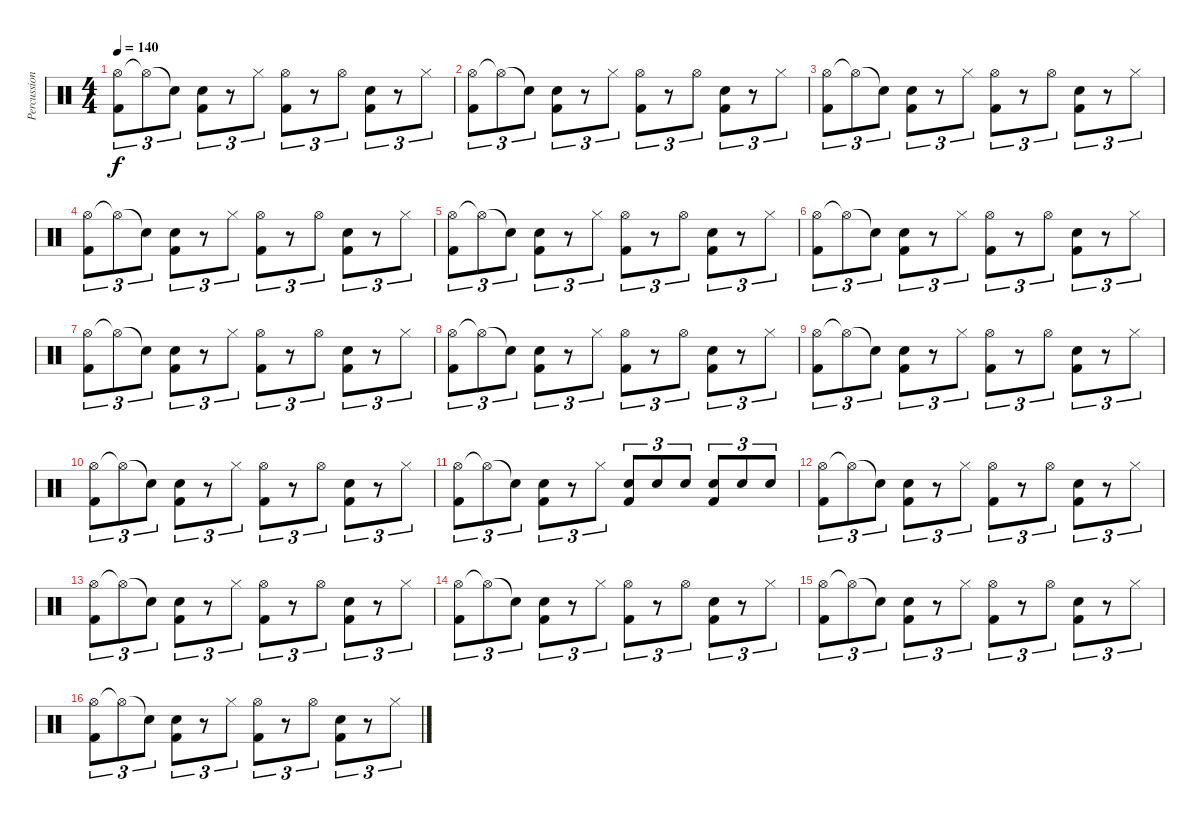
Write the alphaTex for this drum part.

\track ("Percussion" "Percussion") {instrument percussion}
\staff {score}
\articulation defaults
\ts (4 4)
\tempo 140
\clef neutral
\ks c
("Hi-Hat (open)" "Kick (hit) 2").8{tu (3 2) dy f} "Hi-Hat (open)"{t}.8{tu (3 2)} "Snare (hit)"{t}.8{tu (3 2)} ("Snare (hit) 2" "Kick (hit) 2").8{tu (3 2)} r.8{tu (3 2)} "Hi-Hat (closed)".8{tu (3 2)} ("Hi-Hat (open)" "Kick (hit) 2").8{tu (3 2)} r.8{tu (3 2)} "Hi-Hat (open)".8{tu (3 2)} ("Snare (hit) 2" "Kick (hit) 2").8{tu (3 2)} r.8{tu (3 2)} "Hi-Hat (closed)".8{tu (3 2)} |
("Hi-Hat (open)" "Kick (hit) 2").8{tu (3 2)} "Hi-Hat (open)"{t}.8{tu (3 2)} "Snare (hit)"{t}.8{tu (3 2)} ("Snare (hit) 2" "Kick (hit) 2").8{tu (3 2)} r.8{tu (3 2)} "Hi-Hat (closed)".8{tu (3 2)} ("Hi-Hat (open)" "Kick (hit) 2").8{tu (3 2)} r.8{tu (3 2)} "Hi-Hat (open)".8{tu (3 2)} ("Snare (hit) 2" "Kick (hit) 2").8{tu (3 2)} r.8{tu (3 2)} "Hi-Hat (closed)".8{tu (3 2)} |
("Hi-Hat (open)" "Kick (hit) 2").8{tu (3 2)} "Hi-Hat (open)"{t}.8{tu (3 2)} "Snare (hit)"{t}.8{tu (3 2)} ("Snare (hit) 2" "Kick (hit) 2").8{tu (3 2)} r.8{tu (3 2)} "Hi-Hat (closed)".8{tu (3 2)} ("Hi-Hat (open)" "Kick (hit) 2").8{tu (3 2)} r.8{tu (3 2)} "Hi-Hat (open)".8{tu (3 2)} ("Snare (hit) 2" "Kick (hit) 2").8{tu (3 2)} r.8{tu (3 2)} "Hi-Hat (closed)".8{tu (3 2)} |
("Hi-Hat (open)" "Kick (hit) 2").8{tu (3 2)} "Hi-Hat (open)"{t}.8{tu (3 2)} "Snare (hit)"{t}.8{tu (3 2)} ("Snare (hit) 2" "Kick (hit) 2").8{tu (3 2)} r.8{tu (3 2)} "Hi-Hat (closed)".8{tu (3 2)} ("Hi-Hat (open)" "Kick (hit) 2").8{tu (3 2)} r.8{tu (3 2)} "Hi-Hat (open)".8{tu (3 2)} ("Snare (hit) 2" "Kick (hit) 2").8{tu (3 2)} r.8{tu (3 2)} "Hi-Hat (closed)".8{tu (3 2)} |
("Hi-Hat (open)" "Kick (hit) 2").8{tu (3 2)} "Hi-Hat (open)"{t}.8{tu (3 2)} "Snare (hit)"{t}.8{tu (3 2)} ("Snare (hit) 2" "Kick (hit) 2").8{tu (3 2)} r.8{tu (3 2)} "Hi-Hat (closed)".8{tu (3 2)} ("Hi-Hat (open)" "Kick (hit) 2").8{tu (3 2)} r.8{tu (3 2)} "Hi-Hat (open)".8{tu (3 2)} ("Snare (hit) 2" "Kick (hit) 2").8{tu (3 2)} r.8{tu (3 2)} "Hi-Hat (closed)".8{tu (3 2)} |
("Hi-Hat (open)" "Kick (hit) 2").8{tu (3 2)} "Hi-Hat (open)"{t}.8{tu (3 2)} "Snare (hit)"{t}.8{tu (3 2)} ("Snare (hit) 2" "Kick (hit) 2").8{tu (3 2)} r.8{tu (3 2)} "Hi-Hat (closed)".8{tu (3 2)} ("Hi-Hat (open)" "Kick (hit) 2").8{tu (3 2)} r.8{tu (3 2)} "Hi-Hat (open)".8{tu (3 2)} ("Snare (hit) 2" "Kick (hit) 2").8{tu (3 2)} r.8{tu (3 2)} "Hi-Hat (closed)".8{tu (3 2)} |
("Hi-Hat (open)" "Kick (hit) 2").8{tu (3 2)} "Hi-Hat (open)"{t}.8{tu (3 2)} "Snare (hit)"{t}.8{tu (3 2)} ("Snare (hit) 2" "Kick (hit) 2").8{tu (3 2)} r.8{tu (3 2)} "Hi-Hat (closed)".8{tu (3 2)} ("Hi-Hat (open)" "Kick (hit) 2").8{tu (3 2)} r.8{tu (3 2)} "Hi-Hat (open)".8{tu (3 2)} ("Snare (hit) 2" "Kick (hit) 2").8{tu (3 2)} r.8{tu (3 2)} "Hi-Hat (closed)".8{tu (3 2)} |
("Hi-Hat (open)" "Kick (hit) 2").8{tu (3 2)} "Hi-Hat (open)"{t}.8{tu (3 2)} "Snare (hit)"{t}.8{tu (3 2)} ("Snare (hit) 2" "Kick (hit) 2").8{tu (3 2)} r.8{tu (3 2)} "Hi-Hat (closed)".8{tu (3 2)} ("Hi-Hat (open)" "Kick (hit) 2").8{tu (3 2)} r.8{tu (3 2)} "Hi-Hat (open)".8{tu (3 2)} ("Snare (hit) 2" "Kick (hit) 2").8{tu (3 2)} r.8{tu (3 2)} "Hi-Hat (closed)".8{tu (3 2)} |
("Hi-Hat (open)" "Kick (hit) 2").8{tu (3 2)} "Hi-Hat (open)"{t}.8{tu (3 2)} "Snare (hit)"{t}.8{tu (3 2)} ("Snare (hit) 2" "Kick (hit) 2").8{tu (3 2)} r.8{tu (3 2)} "Hi-Hat (closed)".8{tu (3 2)} ("Hi-Hat (open)" "Kick (hit) 2").8{tu (3 2)} r.8{tu (3 2)} "Hi-Hat (open)".8{tu (3 2)} ("Snare (hit) 2" "Kick (hit) 2").8{tu (3 2)} r.8{tu (3 2)} "Hi-Hat (closed)".8{tu (3 2)} |
("Hi-Hat (open)" "Kick (hit) 2").8{tu (3 2)} "Hi-Hat (open)"{t}.8{tu (3 2)} "Snare (hit)"{t}.8{tu (3 2)} ("Snare (hit) 2" "Kick (hit) 2").8{tu (3 2)} r.8{tu (3 2)} "Hi-Hat (closed)".8{tu (3 2)} ("Hi-Hat (open)" "Kick (hit) 2").8{tu (3 2)} r.8{tu (3 2)} "Hi-Hat (open)".8{tu (3 2)} ("Snare (hit) 2" "Kick (hit) 2").8{tu (3 2)} r.8{tu (3 2)} "Hi-Hat (closed)".8{tu (3 2)} |
("Hi-Hat (open)" "Kick (hit) 2").8{tu (3 2)} "Hi-Hat (open)"{t}.8{tu (3 2)} "Snare (hit)"{t}.8{tu (3 2)} ("Snare (hit) 2" "Kick (hit) 2").8{tu (3 2)} r.8{tu (3 2)} "Hi-Hat (closed)".8{tu (3 2)} ("Snare (hit) 2" "Kick (hit) 2").8{tu (3 2)} "Snare (hit) 2".8{tu (3 2)} "Snare (hit) 2".8{tu (3 2)} ("Snare (hit) 2" "Kick (hit) 2").8{tu (3 2)} "Snare (hit) 2".8{tu (3 2)} "Snare (hit) 2".8{tu (3 2)} |
("Hi-Hat (open)" "Kick (hit) 2").8{tu (3 2)} "Hi-Hat (open)"{t}.8{tu (3 2)} "Snare (hit)"{t}.8{tu (3 2)} ("Snare (hit) 2" "Kick (hit) 2").8{tu (3 2)} r.8{tu (3 2)} "Hi-Hat (closed)".8{tu (3 2)} ("Hi-Hat (open)" "Kick (hit) 2").8{tu (3 2)} r.8{tu (3 2)} "Hi-Hat (open)".8{tu (3 2)} ("Snare (hit) 2" "Kick (hit) 2").8{tu (3 2)} r.8{tu (3 2)} "Hi-Hat (closed)".8{tu (3 2)} |
("Hi-Hat (open)" "Kick (hit) 2").8{tu (3 2)} "Hi-Hat (open)"{t}.8{tu (3 2)} "Snare (hit)"{t}.8{tu (3 2)} ("Snare (hit) 2" "Kick (hit) 2").8{tu (3 2)} r.8{tu (3 2)} "Hi-Hat (closed)".8{tu (3 2)} ("Hi-Hat (open)" "Kick (hit) 2").8{tu (3 2)} r.8{tu (3 2)} "Hi-Hat (open)".8{tu (3 2)} ("Snare (hit) 2" "Kick (hit) 2").8{tu (3 2)} r.8{tu (3 2)} "Hi-Hat (closed)".8{tu (3 2)} |
("Hi-Hat (open)" "Kick (hit) 2").8{tu (3 2)} "Hi-Hat (open)"{t}.8{tu (3 2)} "Snare (hit)"{t}.8{tu (3 2)} ("Snare (hit) 2" "Kick (hit) 2").8{tu (3 2)} r.8{tu (3 2)} "Hi-Hat (closed)".8{tu (3 2)} ("Hi-Hat (open)" "Kick (hit) 2").8{tu (3 2)} r.8{tu (3 2)} "Hi-Hat (open)".8{tu (3 2)} ("Snare (hit) 2" "Kick (hit) 2").8{tu (3 2)} r.8{tu (3 2)} "Hi-Hat (closed)".8{tu (3 2)} |
("Hi-Hat (open)" "Kick (hit) 2").8{tu (3 2)} "Hi-Hat (open)"{t}.8{tu (3 2)} "Snare (hit)"{t}.8{tu (3 2)} ("Snare (hit) 2" "Kick (hit) 2").8{tu (3 2)} r.8{tu (3 2)} "Hi-Hat (closed)".8{tu (3 2)} ("Hi-Hat (open)" "Kick (hit) 2").8{tu (3 2)} r.8{tu (3 2)} "Hi-Hat (open)".8{tu (3 2)} ("Snare (hit) 2" "Kick (hit) 2").8{tu (3 2)} r.8{tu (3 2)} "Hi-Hat (closed)".8{tu (3 2)} |
("Hi-Hat (open)" "Kick (hit) 2").8{tu (3 2)} "Hi-Hat (open)"{t}.8{tu (3 2)} "Snare (hit)"{t}.8{tu (3 2)} ("Snare (hit) 2" "Kick (hit) 2").8{tu (3 2)} r.8{tu (3 2)} "Hi-Hat (closed)".8{tu (3 2)} ("Hi-Hat (open)" "Kick (hit) 2").8{tu (3 2)} r.8{tu (3 2)} "Hi-Hat (open)".8{tu (3 2)} ("Snare (hit) 2" "Kick (hit) 2").8{tu (3 2)} r.8{tu (3 2)} "Hi-Hat (closed)".8{tu (3 2)}
